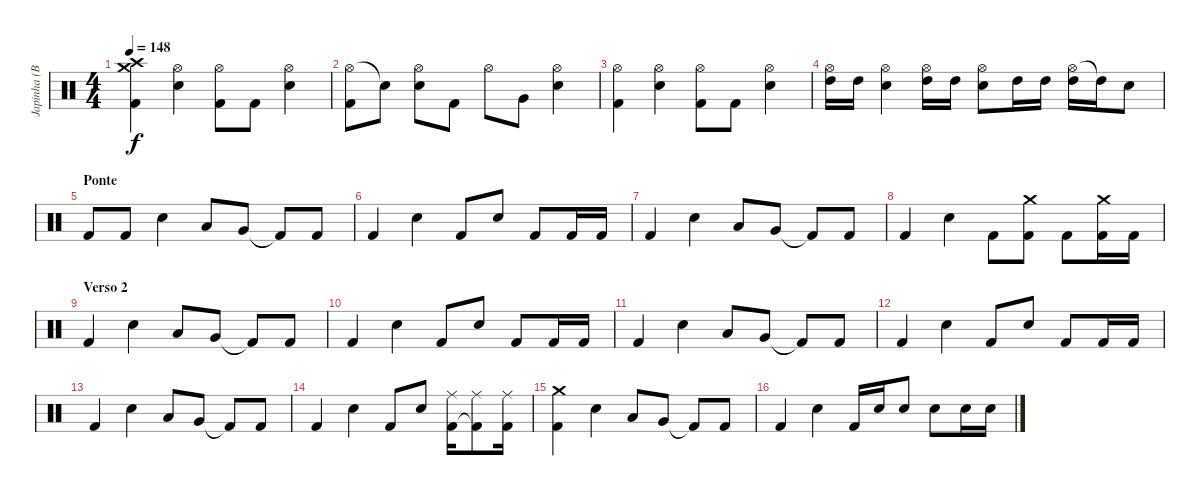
\track ("Japinha (Bateria)" "Japinha (B") {instrument percussion}
\staff {score}
\articulation defaults
\ts (4 4)
\tempo 148
\clef neutral
\ks c
("Crash medium (hit)" "Crash high (hit)" "Kick (hit) 2").4{dy f} ("Hi-Hat (open)" "Snare (hit) 2").4 ("Hi-Hat (open)" "Kick (hit) 2").8 "Kick (hit) 2".8 ("Hi-Hat (open)" "Snare (hit) 2").4 |
("Hi-Hat (open)" "Kick (hit) 2").8 "Snare (hit)"{t}.8 ("Hi-Hat (open)" "Snare (hit) 2").8 "Kick (hit) 2".8 "Hi-Hat (open)".8 "Very Low Tom (hit)".8 ("Hi-Hat (open)" "Snare (hit) 2").4 |
("Hi-Hat (open)" "Kick (hit) 2").4 ("Hi-Hat (open)" "Snare (hit) 2").4 ("Hi-Hat (open)" "Kick (hit) 2").8 "Kick (hit) 2".8 ("Hi-Hat (open)" "Snare (hit) 2").4 |
("Hi-Hat (open)" "High Tom (hit)").16 "High Tom (hit)".16 ("Hi-Hat (open)" "Snare (hit) 2").4 ("Hi-Hat (open)" "High Tom (hit)").16 "High Tom (hit)".16 ("Hi-Hat (open)" "Snare (hit) 2").8 "High Tom (hit)".16 "High Tom (hit)".16 ("Hi-Hat (open)" "High Tom (hit)").16 "High Tom (hit)"{t}.16 "Snare (hit) 2".8 |
\section ("" "Ponte")
"Kick (hit) 2".8 "Kick (hit) 2".8 "Snare (hit) 2".4 "Low Tom (hit)".8 "Very Low Tom (hit)".8 "Kick (hit) 2"{t}.8 "Kick (hit) 2".8 |
"Kick (hit) 2".4 "Snare (hit) 2".4 "Kick (hit) 2".8 "Snare (hit) 2".8 "Kick (hit) 2".8 "Kick (hit) 2".16 "Kick (hit) 2".16 |
"Kick (hit) 2".4 "Snare (hit) 2".4 "Low Tom (hit)".8 "Very Low Tom (hit)".8 "Kick (hit) 2"{t}.8 "Kick (hit) 2".8 |
"Kick (hit) 2".4 "Snare (hit) 2".4 "Kick (hit) 2".8 ("Crash medium (hit)" "Kick (hit) 2").8 "Kick (hit) 2".8 ("Crash medium (hit)" "Kick (hit) 2").16 "Kick (hit) 2".16 |
\section ("" "Verso 2")
"Kick (hit) 2".4 "Snare (hit) 2".4 "Low Tom (hit)".8 "Very Low Tom (hit)".8 "Kick (hit) 2"{t}.8 "Kick (hit) 2".8 |
"Kick (hit) 2".4 "Snare (hit) 2".4 "Kick (hit) 2".8 "Snare (hit) 2".8 "Kick (hit) 2".8 "Kick (hit) 2".16 "Kick (hit) 2".16 |
"Kick (hit) 2".4 "Snare (hit) 2".4 "Low Tom (hit)".8 "Very Low Tom (hit)".8 "Kick (hit) 2"{t}.8 "Kick (hit) 2".8 |
"Kick (hit) 2".4 "Snare (hit) 2".4 "Kick (hit) 2".8 "Snare (hit) 2".8 "Kick (hit) 2".8 "Kick (hit) 2".16 "Kick (hit) 2".16 |
"Kick (hit) 2".4 "Snare (hit) 2".4 "Low Tom (hit)".8 "Very Low Tom (hit)".8 "Kick (hit) 2"{t}.8 "Kick (hit) 2".8 |
"Kick (hit) 2".4 "Snare (hit) 2".4 "Kick (hit) 2".8 "Snare (hit) 2".8 ("Ride (middle)" "Kick (hit) 2").16 ("Ride (middle)" "Kick (hit) 2"{t}).8 ("Ride (middle)" "Kick (hit) 2").16 |
("Crash medium (hit)" "Kick (hit) 2").4 "Snare (hit) 2".4 "Low Tom (hit)".8 "Very Low Tom (hit)".8 "Kick (hit) 2"{t}.8 "Kick (hit) 2".8 |
"Kick (hit) 2".4 "Snare (hit) 2".4 "Kick (hit) 2".16 "Snare (hit) 2".16 "Snare (hit) 2".8 "Snare (hit) 2".8 "Snare (hit) 2".16 "Snare (hit) 2".16
